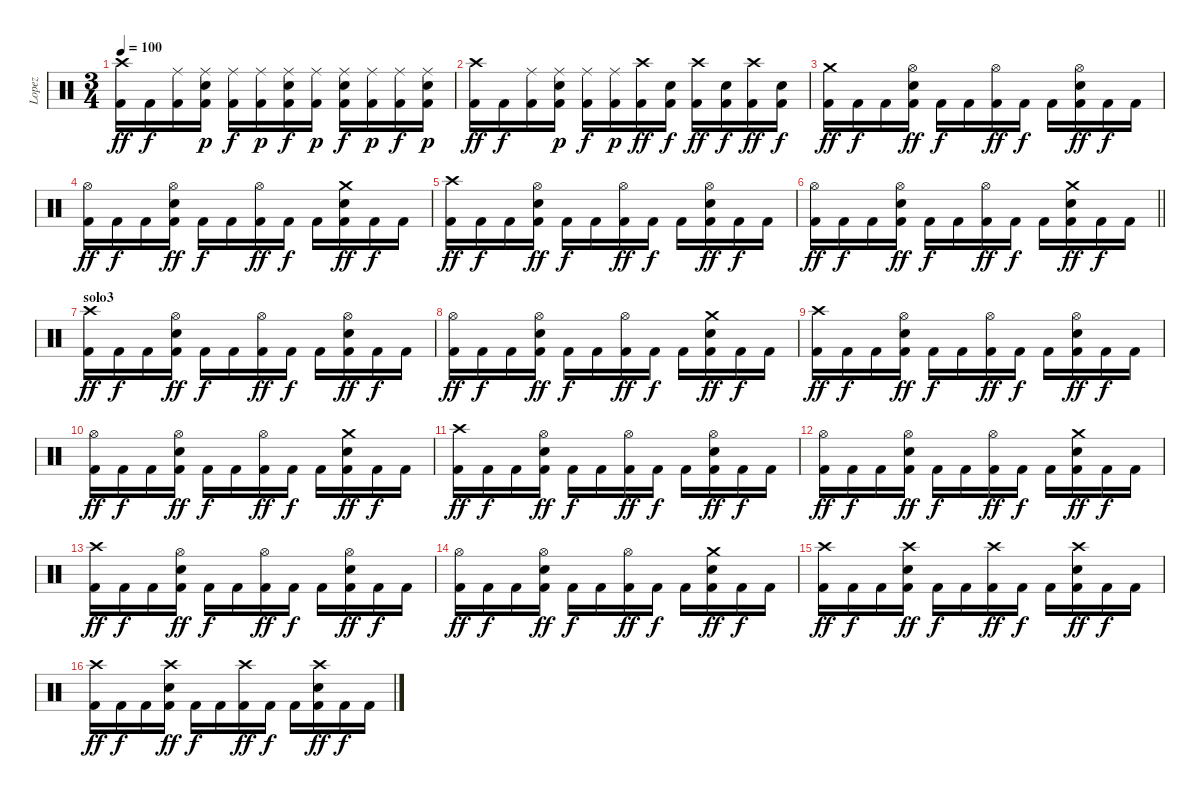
\track ("Lopez" "Lopez") {instrument percussion}
\staff {score}
\articulation defaults
\ts (3 4)
\tempo 100
\clef neutral
\ks c
("Crash high (hit)" "Kick (hit) 2").16{dy ff} "Kick (hit) 2".16{dy f} ("Ride (middle)" "Kick (hit) 2").16 ("Ride (middle)" "Snare (hit) 2" "Kick (hit) 2").16{dy p} ("Ride (middle)" "Kick (hit) 2").16{dy f} ("Ride (middle)" "Kick (hit) 2").16{dy p} ("Ride (middle)" "Snare (hit) 2" "Kick (hit) 2").16{dy f} ("Ride (middle)" "Kick (hit) 2").16{dy p} ("Ride (middle)" "Snare (hit) 2" "Kick (hit) 2").16{dy f} ("Ride (middle)" "Kick (hit) 2").16{dy p} ("Ride (middle)" "Kick (hit) 2").16{dy f} ("Ride (middle)" "Snare (hit) 2" "Kick (hit) 2").16{dy p} |
("Crash high (hit)" "Kick (hit) 2").16{dy ff} "Kick (hit) 2".16{dy f} ("Ride (middle)" "Kick (hit) 2").16 ("Ride (middle)" "Snare (hit) 2" "Kick (hit) 2").16{dy p} ("Ride (middle)" "Kick (hit) 2").16{dy f} ("Ride (middle)" "Kick (hit) 2").16{dy p} ("Crash high (hit)" "Kick (hit) 2").16{dy ff} ("Snare (hit) 2" "Kick (hit) 2").16{dy f} ("Crash high (hit)" "Kick (hit) 2").16{dy ff} ("Snare (hit) 2" "Kick (hit) 2").16{dy f} ("Crash high (hit)" "Kick (hit) 2").16{dy ff} ("Snare (hit) 2" "Kick (hit) 2").16{dy f} |
("Crash medium (hit)" "Kick (hit) 2").16{dy ff} "Kick (hit) 2".16{dy f} "Kick (hit) 2".16 ("Hi-Hat (open)" "Snare (hit) 2" "Kick (hit) 2").16{dy ff} "Kick (hit) 2".16{dy f} "Kick (hit) 2".16 ("Hi-Hat (open)" "Kick (hit) 2").16{dy ff} "Kick (hit) 2".16{dy f} "Kick (hit) 2".16 ("Hi-Hat (open)" "Snare (hit) 2" "Kick (hit) 2").16{dy ff} "Kick (hit) 2".16{dy f} "Kick (hit) 2".16 |
("Hi-Hat (open)" "Kick (hit) 2").16{dy ff} "Kick (hit) 2".16{dy f} "Kick (hit) 2".16 ("Hi-Hat (open)" "Snare (hit) 2" "Kick (hit) 2").16{dy ff} "Kick (hit) 2".16{dy f} "Kick (hit) 2".16 ("Hi-Hat (open)" "Kick (hit) 2").16{dy ff} "Kick (hit) 2".16{dy f} "Kick (hit) 2".16 ("Crash medium (hit)" "Snare (hit) 2" "Kick (hit) 2").16{dy ff} "Kick (hit) 2".16{dy f} "Kick (hit) 2".16 |
("Crash high (hit)" "Kick (hit) 2").16{dy ff} "Kick (hit) 2".16{dy f} "Kick (hit) 2".16 ("Hi-Hat (open)" "Snare (hit) 2" "Kick (hit) 2").16{dy ff} "Kick (hit) 2".16{dy f} "Kick (hit) 2".16 ("Hi-Hat (open)" "Kick (hit) 2").16{dy ff} "Kick (hit) 2".16{dy f} "Kick (hit) 2".16 ("Hi-Hat (open)" "Snare (hit) 2" "Kick (hit) 2").16{dy ff} "Kick (hit) 2".16{dy f} "Kick (hit) 2".16 |
\barLineRight lightlight
("Hi-Hat (open)" "Kick (hit) 2").16{dy ff} "Kick (hit) 2".16{dy f} "Kick (hit) 2".16 ("Hi-Hat (open)" "Snare (hit) 2" "Kick (hit) 2").16{dy ff} "Kick (hit) 2".16{dy f} "Kick (hit) 2".16 ("Hi-Hat (open)" "Kick (hit) 2").16{dy ff} "Kick (hit) 2".16{dy f} "Kick (hit) 2".16 ("Crash medium (hit)" "Snare (hit) 2" "Kick (hit) 2").16{dy ff} "Kick (hit) 2".16{dy f} "Kick (hit) 2".16 |
\section ("" "solo3")
("Crash high (hit)" "Kick (hit) 2").16{dy ff} "Kick (hit) 2".16{dy f} "Kick (hit) 2".16 ("Hi-Hat (open)" "Snare (hit) 2" "Kick (hit) 2").16{dy ff} "Kick (hit) 2".16{dy f} "Kick (hit) 2".16 ("Hi-Hat (open)" "Kick (hit) 2").16{dy ff} "Kick (hit) 2".16{dy f} "Kick (hit) 2".16 ("Hi-Hat (open)" "Snare (hit) 2" "Kick (hit) 2").16{dy ff} "Kick (hit) 2".16{dy f} "Kick (hit) 2".16 |
("Hi-Hat (open)" "Kick (hit) 2").16{dy ff} "Kick (hit) 2".16{dy f} "Kick (hit) 2".16 ("Hi-Hat (open)" "Snare (hit) 2" "Kick (hit) 2").16{dy ff} "Kick (hit) 2".16{dy f} "Kick (hit) 2".16 ("Hi-Hat (open)" "Kick (hit) 2").16{dy ff} "Kick (hit) 2".16{dy f} "Kick (hit) 2".16 ("Crash medium (hit)" "Snare (hit) 2" "Kick (hit) 2").16{dy ff} "Kick (hit) 2".16{dy f} "Kick (hit) 2".16 |
("Crash high (hit)" "Kick (hit) 2").16{dy ff} "Kick (hit) 2".16{dy f} "Kick (hit) 2".16 ("Hi-Hat (open)" "Snare (hit) 2" "Kick (hit) 2").16{dy ff} "Kick (hit) 2".16{dy f} "Kick (hit) 2".16 ("Hi-Hat (open)" "Kick (hit) 2").16{dy ff} "Kick (hit) 2".16{dy f} "Kick (hit) 2".16 ("Hi-Hat (open)" "Snare (hit) 2" "Kick (hit) 2").16{dy ff} "Kick (hit) 2".16{dy f} "Kick (hit) 2".16 |
("Hi-Hat (open)" "Kick (hit) 2").16{dy ff} "Kick (hit) 2".16{dy f} "Kick (hit) 2".16 ("Hi-Hat (open)" "Snare (hit) 2" "Kick (hit) 2").16{dy ff} "Kick (hit) 2".16{dy f} "Kick (hit) 2".16 ("Hi-Hat (open)" "Kick (hit) 2").16{dy ff} "Kick (hit) 2".16{dy f} "Kick (hit) 2".16 ("Crash medium (hit)" "Snare (hit) 2" "Kick (hit) 2").16{dy ff} "Kick (hit) 2".16{dy f} "Kick (hit) 2".16 |
("Crash high (hit)" "Kick (hit) 2").16{dy ff} "Kick (hit) 2".16{dy f} "Kick (hit) 2".16 ("Hi-Hat (open)" "Snare (hit) 2" "Kick (hit) 2").16{dy ff} "Kick (hit) 2".16{dy f} "Kick (hit) 2".16 ("Hi-Hat (open)" "Kick (hit) 2").16{dy ff} "Kick (hit) 2".16{dy f} "Kick (hit) 2".16 ("Hi-Hat (open)" "Snare (hit) 2" "Kick (hit) 2").16{dy ff} "Kick (hit) 2".16{dy f} "Kick (hit) 2".16 |
("Hi-Hat (open)" "Kick (hit) 2").16{dy ff} "Kick (hit) 2".16{dy f} "Kick (hit) 2".16 ("Hi-Hat (open)" "Snare (hit) 2" "Kick (hit) 2").16{dy ff} "Kick (hit) 2".16{dy f} "Kick (hit) 2".16 ("Hi-Hat (open)" "Kick (hit) 2").16{dy ff} "Kick (hit) 2".16{dy f} "Kick (hit) 2".16 ("Crash medium (hit)" "Snare (hit) 2" "Kick (hit) 2").16{dy ff} "Kick (hit) 2".16{dy f} "Kick (hit) 2".16 |
("Crash high (hit)" "Kick (hit) 2").16{dy ff} "Kick (hit) 2".16{dy f} "Kick (hit) 2".16 ("Hi-Hat (open)" "Snare (hit) 2" "Kick (hit) 2").16{dy ff} "Kick (hit) 2".16{dy f} "Kick (hit) 2".16 ("Hi-Hat (open)" "Kick (hit) 2").16{dy ff} "Kick (hit) 2".16{dy f} "Kick (hit) 2".16 ("Hi-Hat (open)" "Snare (hit) 2" "Kick (hit) 2").16{dy ff} "Kick (hit) 2".16{dy f} "Kick (hit) 2".16 |
("Hi-Hat (open)" "Kick (hit) 2").16{dy ff} "Kick (hit) 2".16{dy f} "Kick (hit) 2".16 ("Hi-Hat (open)" "Snare (hit) 2" "Kick (hit) 2").16{dy ff} "Kick (hit) 2".16{dy f} "Kick (hit) 2".16 ("Hi-Hat (open)" "Kick (hit) 2").16{dy ff} "Kick (hit) 2".16{dy f} "Kick (hit) 2".16 ("Crash medium (hit)" "Snare (hit) 2" "Kick (hit) 2").16{dy ff} "Kick (hit) 2".16{dy f} "Kick (hit) 2".16 |
("Crash high (hit)" "Kick (hit) 2").16{dy ff} "Kick (hit) 2".16{dy f} "Kick (hit) 2".16 ("Crash high (hit)" "Snare (hit) 2" "Kick (hit) 2").16{dy ff} "Kick (hit) 2".16{dy f} "Kick (hit) 2".16 ("Crash high (hit)" "Kick (hit) 2").16{dy ff} "Kick (hit) 2".16{dy f} "Kick (hit) 2".16 ("Crash high (hit)" "Snare (hit) 2" "Kick (hit) 2").16{dy ff} "Kick (hit) 2".16{dy f} "Kick (hit) 2".16 |
("Crash high (hit)" "Kick (hit) 2").16{dy ff} "Kick (hit) 2".16{dy f} "Kick (hit) 2".16 ("Crash high (hit)" "Snare (hit) 2" "Kick (hit) 2").16{dy ff} "Kick (hit) 2".16{dy f} "Kick (hit) 2".16 ("Crash high (hit)" "Kick (hit) 2").16{dy ff} "Kick (hit) 2".16{dy f} "Kick (hit) 2".16 ("Crash high (hit)" "Snare (hit) 2" "Kick (hit) 2").16{dy ff} "Kick (hit) 2".16{dy f} "Kick (hit) 2".16
